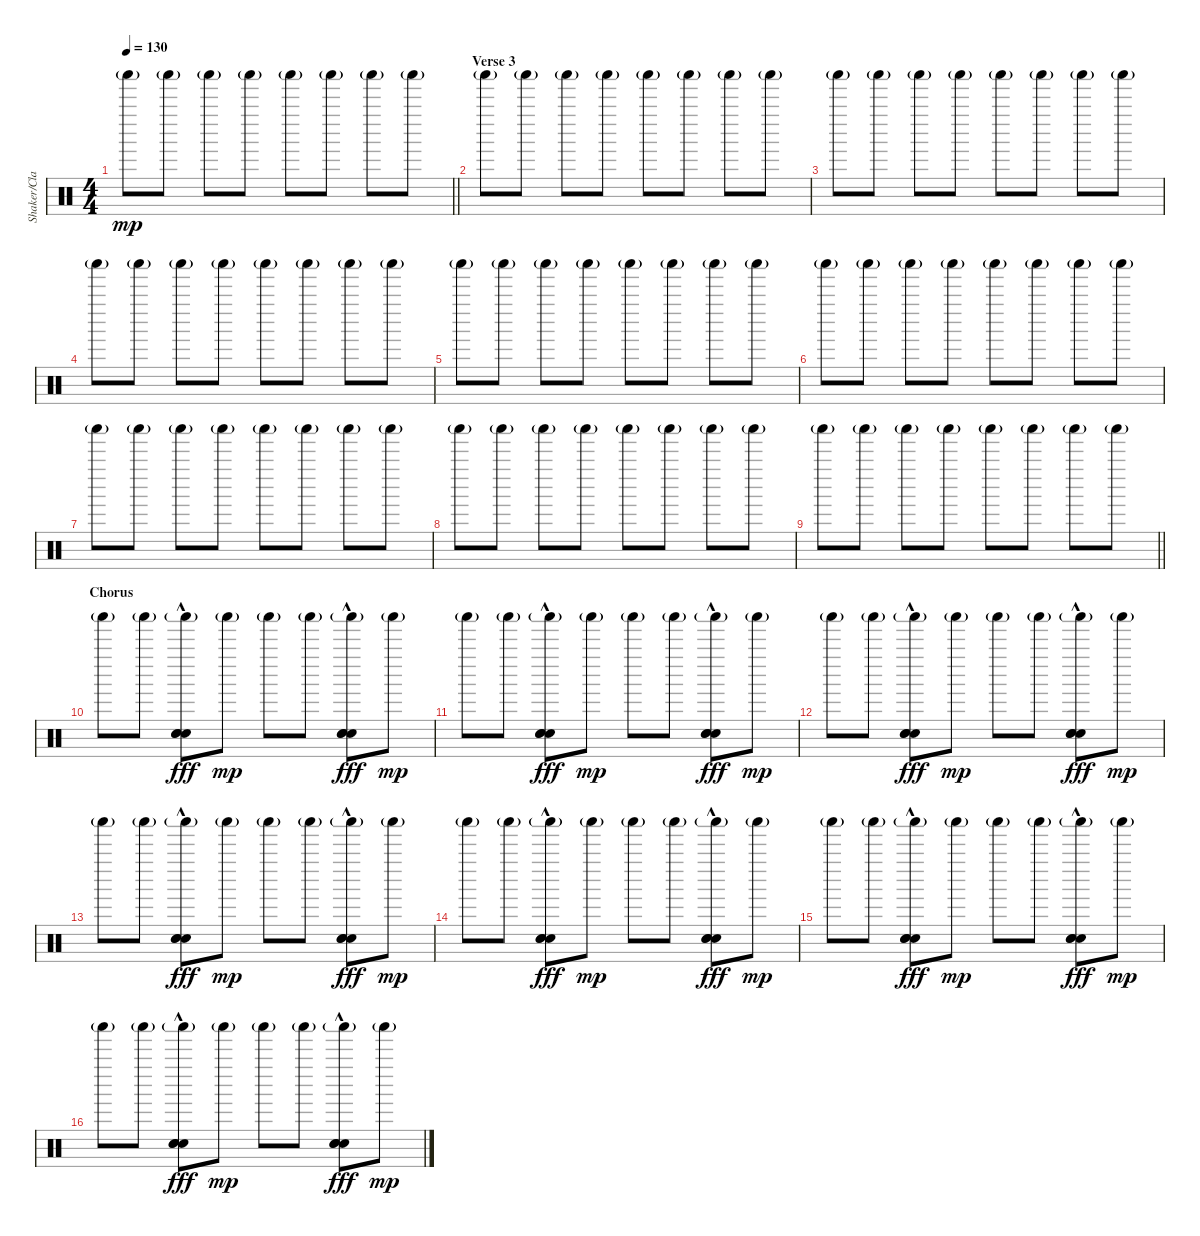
\track ("Shaker/Claps" "Shaker/Cla") {instrument percussion}
\staff {score}
\articulation defaults
\ts (4 4)
\tempo 130
\clef neutral
\barLineRight lightlight
\ks c "Shaker (hit)"{g}.8{dy mp} "Shaker (hit)"{g}.8 "Shaker (hit)"{g}.8 "Shaker (hit)"{g}.8 "Shaker (hit)"{g}.8 "Shaker (hit)"{g}.8 "Shaker (hit)"{g}.8 "Shaker (hit)"{g}.8
|
\section ("" "Verse 3")
"Shaker (hit)"{g}.8 "Shaker (hit)"{g}.8 "Shaker (hit)"{g}.8 "Shaker (hit)"{g}.8 "Shaker (hit)"{g}.8 "Shaker (hit)"{g}.8 "Shaker (hit)"{g}.8 "Shaker (hit)"{g}.8 |
"Shaker (hit)"{g}.8 "Shaker (hit)"{g}.8 "Shaker (hit)"{g}.8 "Shaker (hit)"{g}.8 "Shaker (hit)"{g}.8 "Shaker (hit)"{g}.8 "Shaker (hit)"{g}.8 "Shaker (hit)"{g}.8 |
"Shaker (hit)"{g}.8 "Shaker (hit)"{g}.8 "Shaker (hit)"{g}.8 "Shaker (hit)"{g}.8 "Shaker (hit)"{g}.8 "Shaker (hit)"{g}.8 "Shaker (hit)"{g}.8 "Shaker (hit)"{g}.8 |
"Shaker (hit)"{g}.8 "Shaker (hit)"{g}.8 "Shaker (hit)"{g}.8 "Shaker (hit)"{g}.8 "Shaker (hit)"{g}.8 "Shaker (hit)"{g}.8 "Shaker (hit)"{g}.8 "Shaker (hit)"{g}.8 |
"Shaker (hit)"{g}.8 "Shaker (hit)"{g}.8 "Shaker (hit)"{g}.8 "Shaker (hit)"{g}.8 "Shaker (hit)"{g}.8 "Shaker (hit)"{g}.8 "Shaker (hit)"{g}.8 "Shaker (hit)"{g}.8 |
"Shaker (hit)"{g}.8 "Shaker (hit)"{g}.8 "Shaker (hit)"{g}.8 "Shaker (hit)"{g}.8 "Shaker (hit)"{g}.8 "Shaker (hit)"{g}.8 "Shaker (hit)"{g}.8 "Shaker (hit)"{g}.8 |
"Shaker (hit)"{g}.8 "Shaker (hit)"{g}.8 "Shaker (hit)"{g}.8 "Shaker (hit)"{g}.8 "Shaker (hit)"{g}.8 "Shaker (hit)"{g}.8 "Shaker (hit)"{g}.8 "Shaker (hit)"{g}.8 |
\barLineRight lightlight "Shaker (hit)"{g}.8 "Shaker (hit)"{g}.8 "Shaker (hit)"{g}.8 "Shaker (hit)"{g}.8 "Shaker (hit)"{g}.8 "Shaker (hit)"{g}.8 "Shaker (hit)"{g}.8 "Shaker (hit)"{g}.8
|
\section ("" "Chorus")
"Shaker (hit)"{g}.8 "Shaker (hit)"{g}.8 ("Shaker (hit)"{g} "Hand Clap (hit)"{hac} "Hand Clap (hit)"{hac} "Hand Clap (hit)"{hac}).8{dy fff} "Shaker (hit)"{g}.8{dy mp} "Shaker (hit)"{g}.8 "Shaker (hit)"{g}.8 ("Shaker (hit)"{g} "Hand Clap (hit)"{hac} "Hand Clap (hit)"{hac} "Hand Clap (hit)"{hac}).8{dy fff} "Shaker (hit)"{g}.8{dy mp} |
"Shaker (hit)"{g}.8 "Shaker (hit)"{g}.8 ("Shaker (hit)"{g} "Hand Clap (hit)"{hac} "Hand Clap (hit)"{hac} "Hand Clap (hit)"{hac}).8{dy fff} "Shaker (hit)"{g}.8{dy mp} "Shaker (hit)"{g}.8 "Shaker (hit)"{g}.8 ("Shaker (hit)"{g} "Hand Clap (hit)"{hac} "Hand Clap (hit)"{hac} "Hand Clap (hit)"{hac}).8{dy fff} "Shaker (hit)"{g}.8{dy mp} |
"Shaker (hit)"{g}.8 "Shaker (hit)"{g}.8 ("Shaker (hit)"{g} "Hand Clap (hit)"{hac} "Hand Clap (hit)"{hac} "Hand Clap (hit)"{hac}).8{dy fff} "Shaker (hit)"{g}.8{dy mp} "Shaker (hit)"{g}.8 "Shaker (hit)"{g}.8 ("Shaker (hit)"{g} "Hand Clap (hit)"{hac} "Hand Clap (hit)"{hac} "Hand Clap (hit)"{hac}).8{dy fff} "Shaker (hit)"{g}.8{dy mp} |
"Shaker (hit)"{g}.8 "Shaker (hit)"{g}.8 ("Shaker (hit)"{g} "Hand Clap (hit)"{hac} "Hand Clap (hit)"{hac} "Hand Clap (hit)"{hac}).8{dy fff} "Shaker (hit)"{g}.8{dy mp} "Shaker (hit)"{g}.8 "Shaker (hit)"{g}.8 ("Shaker (hit)"{g} "Hand Clap (hit)"{hac} "Hand Clap (hit)"{hac} "Hand Clap (hit)"{hac}).8{dy fff} "Shaker (hit)"{g}.8{dy mp} |
"Shaker (hit)"{g}.8 "Shaker (hit)"{g}.8 ("Shaker (hit)"{g} "Hand Clap (hit)"{hac} "Hand Clap (hit)"{hac} "Hand Clap (hit)"{hac}).8{dy fff} "Shaker (hit)"{g}.8{dy mp} "Shaker (hit)"{g}.8 "Shaker (hit)"{g}.8 ("Shaker (hit)"{g} "Hand Clap (hit)"{hac} "Hand Clap (hit)"{hac} "Hand Clap (hit)"{hac}).8{dy fff} "Shaker (hit)"{g}.8{dy mp} |
"Shaker (hit)"{g}.8 "Shaker (hit)"{g}.8 ("Shaker (hit)"{g} "Hand Clap (hit)"{hac} "Hand Clap (hit)"{hac} "Hand Clap (hit)"{hac}).8{dy fff} "Shaker (hit)"{g}.8{dy mp} "Shaker (hit)"{g}.8 "Shaker (hit)"{g}.8 ("Shaker (hit)"{g} "Hand Clap (hit)"{hac} "Hand Clap (hit)"{hac} "Hand Clap (hit)"{hac}).8{dy fff} "Shaker (hit)"{g}.8{dy mp} |
"Shaker (hit)"{g}.8 "Shaker (hit)"{g}.8 ("Shaker (hit)"{g} "Hand Clap (hit)"{hac} "Hand Clap (hit)"{hac} "Hand Clap (hit)"{hac}).8{dy fff} "Shaker (hit)"{g}.8{dy mp} "Shaker (hit)"{g}.8 "Shaker (hit)"{g}.8 ("Shaker (hit)"{g} "Hand Clap (hit)"{hac} "Hand Clap (hit)"{hac} "Hand Clap (hit)"{hac}).8{dy fff} "Shaker (hit)"{g}.8{dy mp}
